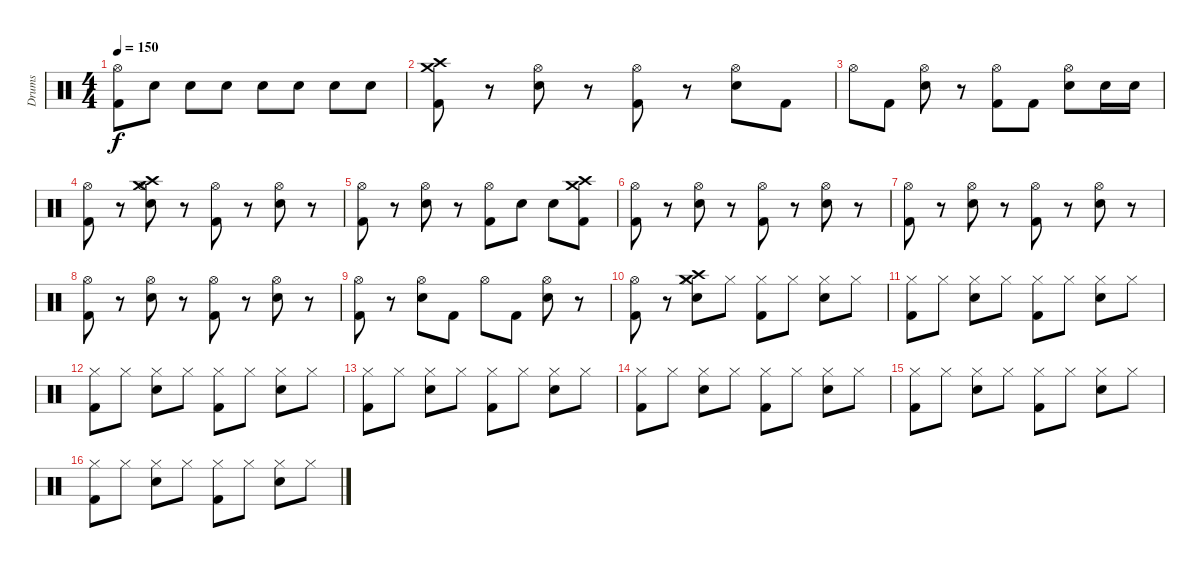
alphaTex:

\track ("Drums" "Drums") {instrument percussion}
\staff {score}
\articulation defaults
\ts (4 4)
\tempo 150
\clef neutral
\ks c
("Hi-Hat (open)" "Kick (hit) 2").8{dy f} "Electric Snare (hit)".8 "Electric Snare (hit)".8 "Electric Snare (hit)".8 "Electric Snare (hit)".8 "Electric Snare (hit)".8 "Electric Snare (hit)".8 "Electric Snare (hit)".8 |
("Kick (hit) 2" "Crash medium (hit)" "Crash high (hit)").8 r.8 ("Hi-Hat (open)" "Electric Snare (hit)").8 r.8 ("Hi-Hat (open)" "Kick (hit) 2").8 r.8 ("Hi-Hat (open)" "Electric Snare (hit)").8 "Kick (hit) 2".8 |
"Hi-Hat (open)".8 "Kick (hit) 2".8 ("Hi-Hat (open)" "Electric Snare (hit)").8 r.8 ("Hi-Hat (open)" "Kick (hit) 2").8 "Kick (hit) 2".8 ("Hi-Hat (open)" "Electric Snare (hit)").8 "Electric Snare (hit)".16 "Electric Snare (hit)".16 |
("Hi-Hat (open)" "Kick (hit) 2").8 r.8 ("Hi-Hat (open)" "Electric Snare (hit)" "Crash high (hit)" "Crash medium (hit)").8 r.8 ("Hi-Hat (open)" "Kick (hit) 2").8 r.8 ("Hi-Hat (open)" "Electric Snare (hit)").8 r.8 |
("Hi-Hat (open)" "Kick (hit) 2").8 r.8 ("Hi-Hat (open)" "Electric Snare (hit)").8 r.8 ("Hi-Hat (open)" "Kick (hit) 2").8 "Electric Snare (hit)".8 "Electric Snare (hit)".8 ("Kick (hit) 2" "Crash medium (hit)" "Crash high (hit)").8 |
("Hi-Hat (open)" "Kick (hit) 2").8 r.8 ("Hi-Hat (open)" "Electric Snare (hit)").8 r.8 ("Hi-Hat (open)" "Kick (hit) 2").8 r.8 ("Hi-Hat (open)" "Electric Snare (hit)").8 r.8 |
("Hi-Hat (open)" "Kick (hit) 2").8 r.8 ("Hi-Hat (open)" "Electric Snare (hit)").8 r.8 ("Hi-Hat (open)" "Kick (hit) 2").8 r.8 ("Hi-Hat (open)" "Electric Snare (hit)").8 r.8 |
("Hi-Hat (open)" "Kick (hit) 2").8 r.8 ("Hi-Hat (open)" "Electric Snare (hit)").8 r.8 ("Hi-Hat (open)" "Kick (hit) 2").8 r.8 ("Hi-Hat (open)" "Electric Snare (hit)").8 r.8 |
("Hi-Hat (open)" "Kick (hit) 2").8 r.8 ("Hi-Hat (open)" "Electric Snare (hit)").8 "Kick (hit) 2".8 "Hi-Hat (open)".8 "Kick (hit) 2".8 ("Hi-Hat (open)" "Electric Snare (hit)").8 r.8 |
("Hi-Hat (open)" "Kick (hit) 2").8 r.8 ("Hi-Hat (closed)" "Electric Snare (hit)" "Crash high (hit)" "Crash medium (hit)").8 "Hi-Hat (closed)".8 ("Hi-Hat (closed)" "Kick (hit) 2").8 "Hi-Hat (closed)".8 ("Hi-Hat (closed)" "Electric Snare (hit)").8 "Hi-Hat (closed)".8 |
("Hi-Hat (closed)" "Kick (hit) 2").8 "Hi-Hat (closed)".8 ("Hi-Hat (closed)" "Electric Snare (hit)").8 "Hi-Hat (closed)".8 ("Hi-Hat (closed)" "Kick (hit) 2").8 "Hi-Hat (closed)".8 ("Hi-Hat (closed)" "Electric Snare (hit)").8 "Hi-Hat (closed)".8 |
("Hi-Hat (closed)" "Kick (hit) 2").8 "Hi-Hat (closed)".8 ("Hi-Hat (closed)" "Electric Snare (hit)").8 "Hi-Hat (closed)".8 ("Hi-Hat (closed)" "Kick (hit) 2").8 "Hi-Hat (closed)".8 ("Hi-Hat (closed)" "Electric Snare (hit)").8 "Hi-Hat (closed)".8 |
("Hi-Hat (closed)" "Kick (hit) 2").8 "Hi-Hat (closed)".8 ("Hi-Hat (closed)" "Electric Snare (hit)").8 "Hi-Hat (closed)".8 ("Hi-Hat (closed)" "Kick (hit) 2").8 "Hi-Hat (closed)".8 ("Hi-Hat (closed)" "Electric Snare (hit)").8 "Hi-Hat (closed)".8 |
("Hi-Hat (closed)" "Kick (hit) 2").8 "Hi-Hat (closed)".8 ("Hi-Hat (closed)" "Electric Snare (hit)").8 "Hi-Hat (closed)".8 ("Hi-Hat (closed)" "Kick (hit) 2").8 "Hi-Hat (closed)".8 ("Hi-Hat (closed)" "Electric Snare (hit)").8 "Hi-Hat (closed)".8 |
("Hi-Hat (closed)" "Kick (hit) 2").8 "Hi-Hat (closed)".8 ("Hi-Hat (closed)" "Electric Snare (hit)").8 "Hi-Hat (closed)".8 ("Hi-Hat (closed)" "Kick (hit) 2").8 "Hi-Hat (closed)".8 ("Hi-Hat (closed)" "Electric Snare (hit)").8 "Hi-Hat (closed)".8 |
("Hi-Hat (closed)" "Kick (hit) 2").8 "Hi-Hat (closed)".8 ("Hi-Hat (closed)" "Electric Snare (hit)").8 "Hi-Hat (closed)".8 ("Hi-Hat (closed)" "Kick (hit) 2").8 "Hi-Hat (closed)".8 ("Hi-Hat (closed)" "Electric Snare (hit)").8 "Hi-Hat (closed)".8
